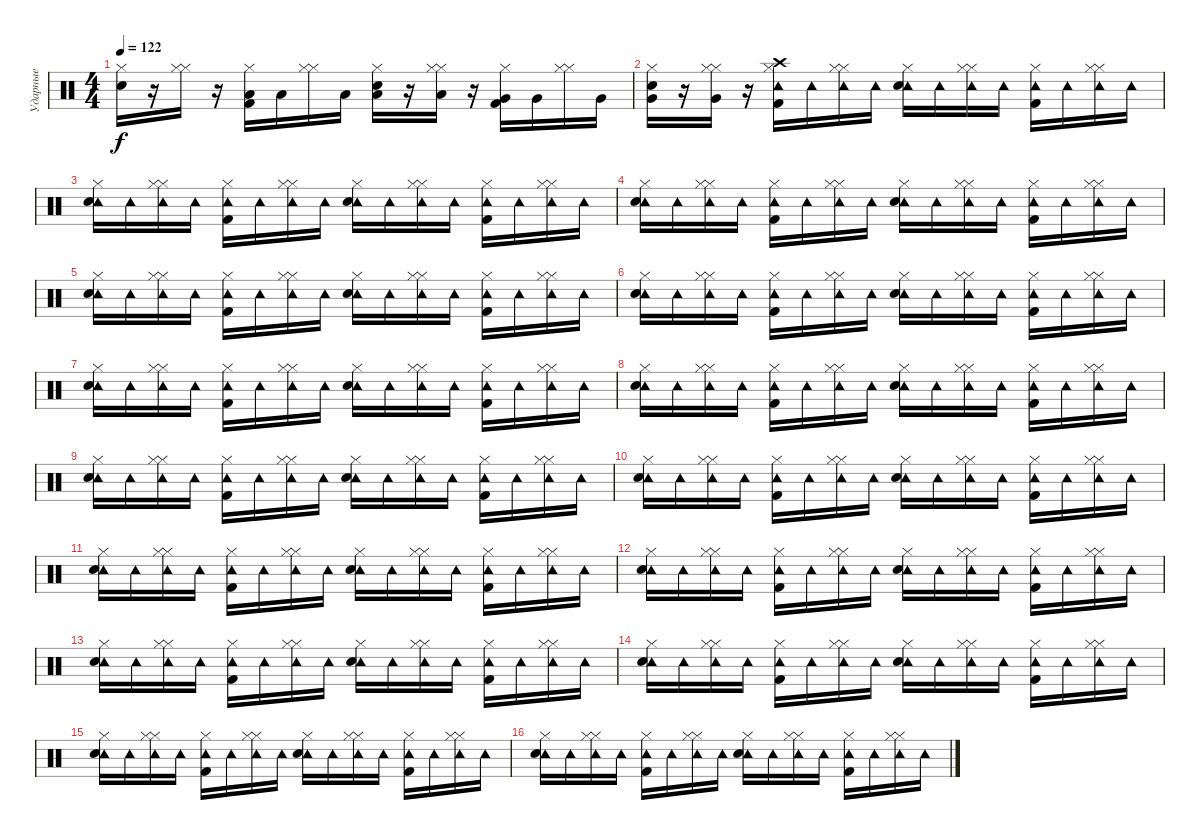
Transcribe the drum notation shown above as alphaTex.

\track ("Ударные" "Ударные") {instrument percussion}
\staff {score}
\articulation defaults
\ts (4 4)
\tempo 122
\clef neutral
\ks c
("Hi-Hat (closed)" "Snare (hit) 2").16{dy f} r.16 ("Hi-Hat (closed)" "Hi-Hat (closed)").16 r.16 ("Low Tom (hit)" "Hi-Hat (closed)" "Kick (hit) 2").16 "Low Tom (hit)".16 ("Hi-Hat (closed)" "Hi-Hat (closed)").16 "Low Tom (hit)".16 ("Low Tom (hit)" "Hi-Hat (closed)" "Snare (hit) 2").16 r.16 ("Low Tom (hit)" "Hi-Hat (closed)" "Hi-Hat (closed)").16 r.16 ("Very Low Tom (hit)" "Hi-Hat (closed)" "Kick (hit) 2").16 "Very Low Tom (hit)".16 ("Hi-Hat (closed)" "Hi-Hat (closed)").16 "Very Low Tom (hit)".16 |
("Very Low Tom (hit)" "Hi-Hat (closed)" "Snare (hit) 2").16 r.16 ("Very Low Tom (hit)" "Hi-Hat (closed)" "Hi-Hat (closed)").16 r.16 ("Crash high (hit)" "Tambourine (hit)" "Hi-Hat (closed)" "Kick (hit) 2").16 "Tambourine (hit)".16 ("Tambourine (hit)" "Hi-Hat (closed)" "Hi-Hat (closed)").16 "Tambourine (hit)".16 ("Tambourine (hit)" "Hi-Hat (closed)" "Snare (hit) 2").16 "Tambourine (hit)".16 ("Tambourine (hit)" "Hi-Hat (closed)" "Hi-Hat (closed)").16 "Tambourine (hit)".16 ("Tambourine (hit)" "Hi-Hat (closed)" "Kick (hit) 2").16 "Tambourine (hit)".16 ("Tambourine (hit)" "Hi-Hat (closed)" "Hi-Hat (closed)").16 "Tambourine (hit)".16 |
("Tambourine (hit)" "Hi-Hat (closed)" "Snare (hit) 2").16 "Tambourine (hit)".16 ("Tambourine (hit)" "Hi-Hat (closed)" "Hi-Hat (closed)").16 "Tambourine (hit)".16 ("Tambourine (hit)" "Hi-Hat (closed)" "Kick (hit) 2").16 "Tambourine (hit)".16 ("Tambourine (hit)" "Hi-Hat (closed)" "Hi-Hat (closed)").16 "Tambourine (hit)".16 ("Tambourine (hit)" "Hi-Hat (closed)" "Snare (hit) 2").16 "Tambourine (hit)".16 ("Tambourine (hit)" "Hi-Hat (closed)" "Hi-Hat (closed)").16 "Tambourine (hit)".16 ("Tambourine (hit)" "Hi-Hat (closed)" "Kick (hit) 2").16 "Tambourine (hit)".16 ("Tambourine (hit)" "Hi-Hat (closed)" "Hi-Hat (closed)").16 "Tambourine (hit)".16 |
("Tambourine (hit)" "Hi-Hat (closed)" "Snare (hit) 2").16 "Tambourine (hit)".16 ("Tambourine (hit)" "Hi-Hat (closed)" "Hi-Hat (closed)").16 "Tambourine (hit)".16 ("Tambourine (hit)" "Hi-Hat (closed)" "Kick (hit) 2").16 "Tambourine (hit)".16 ("Tambourine (hit)" "Hi-Hat (closed)" "Hi-Hat (closed)").16 "Tambourine (hit)".16 ("Tambourine (hit)" "Hi-Hat (closed)" "Snare (hit) 2").16 "Tambourine (hit)".16 ("Tambourine (hit)" "Hi-Hat (closed)" "Hi-Hat (closed)").16 "Tambourine (hit)".16 ("Tambourine (hit)" "Hi-Hat (closed)" "Kick (hit) 2").16 "Tambourine (hit)".16 ("Tambourine (hit)" "Hi-Hat (closed)" "Hi-Hat (closed)").16 "Tambourine (hit)".16 |
("Tambourine (hit)" "Hi-Hat (closed)" "Snare (hit) 2").16 "Tambourine (hit)".16 ("Tambourine (hit)" "Hi-Hat (closed)" "Hi-Hat (closed)").16 "Tambourine (hit)".16 ("Tambourine (hit)" "Hi-Hat (closed)" "Kick (hit) 2").16 "Tambourine (hit)".16 ("Tambourine (hit)" "Hi-Hat (closed)" "Hi-Hat (closed)").16 "Tambourine (hit)".16 ("Tambourine (hit)" "Hi-Hat (closed)" "Snare (hit) 2").16 "Tambourine (hit)".16 ("Tambourine (hit)" "Hi-Hat (closed)" "Hi-Hat (closed)").16 "Tambourine (hit)".16 ("Tambourine (hit)" "Hi-Hat (closed)" "Kick (hit) 2").16 "Tambourine (hit)".16 ("Tambourine (hit)" "Hi-Hat (closed)" "Hi-Hat (closed)").16 "Tambourine (hit)".16 |
("Tambourine (hit)" "Hi-Hat (closed)" "Snare (hit) 2").16 "Tambourine (hit)".16 ("Tambourine (hit)" "Hi-Hat (closed)" "Hi-Hat (closed)").16 "Tambourine (hit)".16 ("Tambourine (hit)" "Hi-Hat (closed)" "Kick (hit) 2").16 "Tambourine (hit)".16 ("Tambourine (hit)" "Hi-Hat (closed)" "Hi-Hat (closed)").16 "Tambourine (hit)".16 ("Tambourine (hit)" "Hi-Hat (closed)" "Snare (hit) 2").16 "Tambourine (hit)".16 ("Tambourine (hit)" "Hi-Hat (closed)" "Hi-Hat (closed)").16 "Tambourine (hit)".16 ("Tambourine (hit)" "Hi-Hat (closed)" "Kick (hit) 2").16 "Tambourine (hit)".16 ("Tambourine (hit)" "Hi-Hat (closed)" "Hi-Hat (closed)").16 "Tambourine (hit)".16 |
("Tambourine (hit)" "Hi-Hat (closed)" "Snare (hit) 2").16 "Tambourine (hit)".16 ("Tambourine (hit)" "Hi-Hat (closed)" "Hi-Hat (closed)").16 "Tambourine (hit)".16 ("Tambourine (hit)" "Hi-Hat (closed)" "Kick (hit) 2").16 "Tambourine (hit)".16 ("Tambourine (hit)" "Hi-Hat (closed)" "Hi-Hat (closed)").16 "Tambourine (hit)".16 ("Tambourine (hit)" "Hi-Hat (closed)" "Snare (hit) 2").16 "Tambourine (hit)".16 ("Tambourine (hit)" "Hi-Hat (closed)" "Hi-Hat (closed)").16 "Tambourine (hit)".16 ("Tambourine (hit)" "Hi-Hat (closed)" "Kick (hit) 2").16 "Tambourine (hit)".16 ("Tambourine (hit)" "Hi-Hat (closed)" "Hi-Hat (closed)").16 "Tambourine (hit)".16 |
("Tambourine (hit)" "Hi-Hat (closed)" "Snare (hit) 2").16 "Tambourine (hit)".16 ("Tambourine (hit)" "Hi-Hat (closed)" "Hi-Hat (closed)").16 "Tambourine (hit)".16 ("Tambourine (hit)" "Hi-Hat (closed)" "Kick (hit) 2").16 "Tambourine (hit)".16 ("Tambourine (hit)" "Hi-Hat (closed)" "Hi-Hat (closed)").16 "Tambourine (hit)".16 ("Tambourine (hit)" "Hi-Hat (closed)" "Snare (hit) 2").16 "Tambourine (hit)".16 ("Tambourine (hit)" "Hi-Hat (closed)" "Hi-Hat (closed)").16 "Tambourine (hit)".16 ("Tambourine (hit)" "Hi-Hat (closed)" "Kick (hit) 2").16 "Tambourine (hit)".16 ("Tambourine (hit)" "Hi-Hat (closed)" "Hi-Hat (closed)").16 "Tambourine (hit)".16 |
("Tambourine (hit)" "Hi-Hat (closed)" "Snare (hit) 2").16 "Tambourine (hit)".16 ("Tambourine (hit)" "Hi-Hat (closed)" "Hi-Hat (closed)").16 "Tambourine (hit)".16 ("Tambourine (hit)" "Hi-Hat (closed)" "Kick (hit) 2").16 "Tambourine (hit)".16 ("Tambourine (hit)" "Hi-Hat (closed)" "Hi-Hat (closed)").16 "Tambourine (hit)".16 ("Tambourine (hit)" "Hi-Hat (closed)" "Snare (hit) 2").16 "Tambourine (hit)".16 ("Tambourine (hit)" "Hi-Hat (closed)" "Hi-Hat (closed)").16 "Tambourine (hit)".16 ("Tambourine (hit)" "Hi-Hat (closed)" "Kick (hit) 2").16 "Tambourine (hit)".16 ("Tambourine (hit)" "Hi-Hat (closed)" "Hi-Hat (closed)").16 "Tambourine (hit)".16 |
("Tambourine (hit)" "Hi-Hat (closed)" "Snare (hit) 2").16 "Tambourine (hit)".16 ("Tambourine (hit)" "Hi-Hat (closed)" "Hi-Hat (closed)").16 "Tambourine (hit)".16 ("Tambourine (hit)" "Hi-Hat (closed)" "Kick (hit) 2").16 "Tambourine (hit)".16 ("Tambourine (hit)" "Hi-Hat (closed)" "Hi-Hat (closed)").16 "Tambourine (hit)".16 ("Tambourine (hit)" "Hi-Hat (closed)" "Snare (hit) 2").16 "Tambourine (hit)".16 ("Tambourine (hit)" "Hi-Hat (closed)" "Hi-Hat (closed)").16 "Tambourine (hit)".16 ("Tambourine (hit)" "Hi-Hat (closed)" "Kick (hit) 2").16 "Tambourine (hit)".16 ("Tambourine (hit)" "Hi-Hat (closed)" "Hi-Hat (closed)").16 "Tambourine (hit)".16 |
("Tambourine (hit)" "Hi-Hat (closed)" "Snare (hit) 2").16 "Tambourine (hit)".16 ("Tambourine (hit)" "Hi-Hat (closed)" "Hi-Hat (closed)").16 "Tambourine (hit)".16 ("Tambourine (hit)" "Hi-Hat (closed)" "Kick (hit) 2").16 "Tambourine (hit)".16 ("Tambourine (hit)" "Hi-Hat (closed)" "Hi-Hat (closed)").16 "Tambourine (hit)".16 ("Tambourine (hit)" "Hi-Hat (closed)" "Snare (hit) 2").16 "Tambourine (hit)".16 ("Tambourine (hit)" "Hi-Hat (closed)" "Hi-Hat (closed)").16 "Tambourine (hit)".16 ("Tambourine (hit)" "Hi-Hat (closed)" "Kick (hit) 2").16 "Tambourine (hit)".16 ("Tambourine (hit)" "Hi-Hat (closed)" "Hi-Hat (closed)").16 "Tambourine (hit)".16 |
("Tambourine (hit)" "Hi-Hat (closed)" "Snare (hit) 2").16 "Tambourine (hit)".16 ("Tambourine (hit)" "Hi-Hat (closed)" "Hi-Hat (closed)").16 "Tambourine (hit)".16 ("Tambourine (hit)" "Hi-Hat (closed)" "Kick (hit) 2").16 "Tambourine (hit)".16 ("Tambourine (hit)" "Hi-Hat (closed)" "Hi-Hat (closed)").16 "Tambourine (hit)".16 ("Tambourine (hit)" "Hi-Hat (closed)" "Snare (hit) 2").16 "Tambourine (hit)".16 ("Tambourine (hit)" "Hi-Hat (closed)" "Hi-Hat (closed)").16 "Tambourine (hit)".16 ("Tambourine (hit)" "Hi-Hat (closed)" "Kick (hit) 2").16 "Tambourine (hit)".16 ("Tambourine (hit)" "Hi-Hat (closed)" "Hi-Hat (closed)").16 "Tambourine (hit)".16 |
("Tambourine (hit)" "Hi-Hat (closed)" "Snare (hit) 2").16 "Tambourine (hit)".16 ("Tambourine (hit)" "Hi-Hat (closed)" "Hi-Hat (closed)").16 "Tambourine (hit)".16 ("Tambourine (hit)" "Hi-Hat (closed)" "Kick (hit) 2").16 "Tambourine (hit)".16 ("Tambourine (hit)" "Hi-Hat (closed)" "Hi-Hat (closed)").16 "Tambourine (hit)".16 ("Tambourine (hit)" "Hi-Hat (closed)" "Snare (hit) 2").16 "Tambourine (hit)".16 ("Tambourine (hit)" "Hi-Hat (closed)" "Hi-Hat (closed)").16 "Tambourine (hit)".16 ("Tambourine (hit)" "Hi-Hat (closed)" "Kick (hit) 2").16 "Tambourine (hit)".16 ("Tambourine (hit)" "Hi-Hat (closed)" "Hi-Hat (closed)").16 "Tambourine (hit)".16 |
("Tambourine (hit)" "Hi-Hat (closed)" "Snare (hit) 2").16 "Tambourine (hit)".16 ("Tambourine (hit)" "Hi-Hat (closed)" "Hi-Hat (closed)").16 "Tambourine (hit)".16 ("Tambourine (hit)" "Hi-Hat (closed)" "Kick (hit) 2").16 "Tambourine (hit)".16 ("Tambourine (hit)" "Hi-Hat (closed)" "Hi-Hat (closed)").16 "Tambourine (hit)".16 ("Tambourine (hit)" "Hi-Hat (closed)" "Snare (hit) 2").16 "Tambourine (hit)".16 ("Tambourine (hit)" "Hi-Hat (closed)" "Hi-Hat (closed)").16 "Tambourine (hit)".16 ("Tambourine (hit)" "Hi-Hat (closed)" "Kick (hit) 2").16 "Tambourine (hit)".16 ("Tambourine (hit)" "Hi-Hat (closed)" "Hi-Hat (closed)").16 "Tambourine (hit)".16 |
("Tambourine (hit)" "Hi-Hat (closed)" "Snare (hit) 2").16 "Tambourine (hit)".16 ("Tambourine (hit)" "Hi-Hat (closed)" "Hi-Hat (closed)").16 "Tambourine (hit)".16 ("Tambourine (hit)" "Hi-Hat (closed)" "Kick (hit) 2").16 "Tambourine (hit)".16 ("Tambourine (hit)" "Hi-Hat (closed)" "Hi-Hat (closed)").16 "Tambourine (hit)".16 ("Tambourine (hit)" "Hi-Hat (closed)" "Snare (hit) 2").16 "Tambourine (hit)".16 ("Tambourine (hit)" "Hi-Hat (closed)" "Hi-Hat (closed)").16 "Tambourine (hit)".16 ("Tambourine (hit)" "Hi-Hat (closed)" "Kick (hit) 2").16 "Tambourine (hit)".16 ("Tambourine (hit)" "Hi-Hat (closed)" "Hi-Hat (closed)").16 "Tambourine (hit)".16 |
("Tambourine (hit)" "Hi-Hat (closed)" "Snare (hit) 2").16 "Tambourine (hit)".16 ("Tambourine (hit)" "Hi-Hat (closed)" "Hi-Hat (closed)").16 "Tambourine (hit)".16 ("Tambourine (hit)" "Hi-Hat (closed)" "Kick (hit) 2").16 "Tambourine (hit)".16 ("Tambourine (hit)" "Hi-Hat (closed)" "Hi-Hat (closed)").16 "Tambourine (hit)".16 ("Tambourine (hit)" "Hi-Hat (closed)" "Snare (hit) 2").16 "Tambourine (hit)".16 ("Tambourine (hit)" "Hi-Hat (closed)" "Hi-Hat (closed)").16 "Tambourine (hit)".16 ("Tambourine (hit)" "Hi-Hat (closed)" "Kick (hit) 2").16 "Tambourine (hit)".16 ("Tambourine (hit)" "Hi-Hat (closed)" "Hi-Hat (closed)").16 "Tambourine (hit)".16
